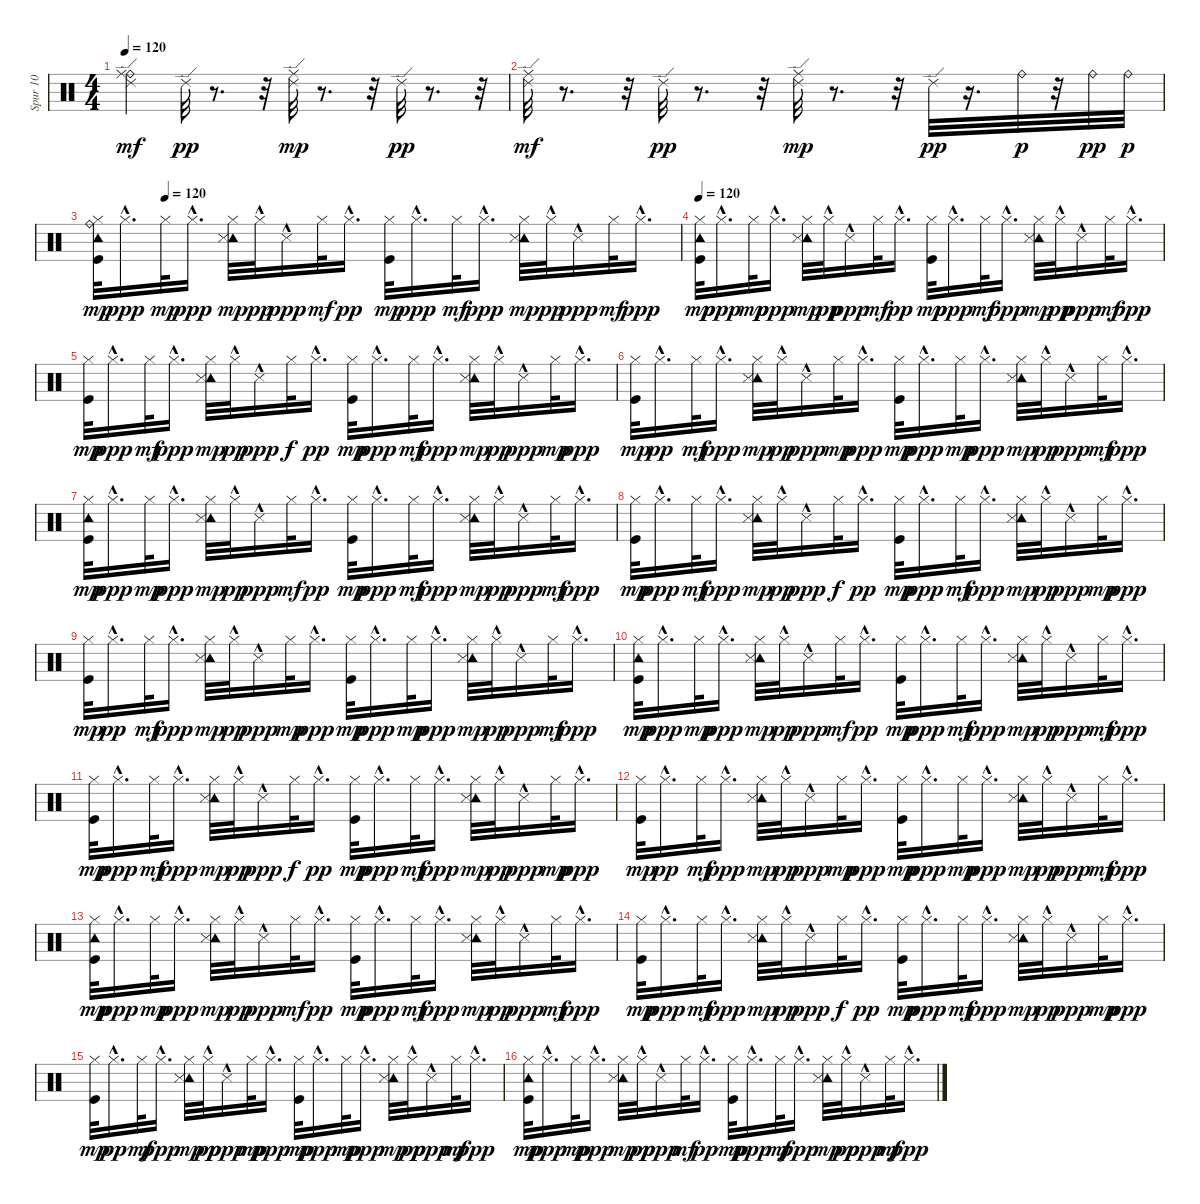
\track ("Spur 10" "Spur 10") {instrument percussion}
\staff {score}
\articulation defaults
\ts (4 4)
\tempo 120
\clef neutral
\ks c
("Ride (bell)" "Ride (middle)" "Ride (edge) 2").4{dy mf} "Ride (edge) 2".32{dy pp} r.8{d} r.32 ("Ride (middle)" "Ride (edge) 2").32{dy mp} r.8{d} r.32 "Ride (edge) 2".32{dy pp} r.8{d} r.32 |
("Ride (middle)" "Ride (edge) 2").32{dy mf} r.8{d} r.32 "Ride (edge) 2".32{dy pp} r.8{d} r.32 ("Ride (middle)" "Ride (edge) 2").32{dy mp} r.8{d} r.32 "Ride (edge) 2".32{dy pp} r.16{d} "Ride (bell)".32{dy p} r.32 "Ride (bell)".32{dy pp} "Ride (bell)".32{dy p} |
\tempo (120 0.125)
("Ride (bell)" "Tambourine (hit)" "Hi-Hat (closed)" "Kick (hit)").32{dy mp} "Hi-Hat (closed)"{hac}.16{d dy ppp} "Hi-Hat (closed)".32{dy mp} "Hi-Hat (closed)"{hac}.16{d dy ppp} ("Tambourine (hit)" "Snare (side stick) 3" "Hi-Hat (closed)").32{dy mp} "Hi-Hat (closed)"{hac}.32{dy pp} "Snare (side stick) 3"{hac}.16{dy ppp} "Hi-Hat (closed)".32{dy mf} "Hi-Hat (closed)"{hac}.16{d dy pp} ("Hi-Hat (closed)" "Kick (hit)").32{dy mp} "Hi-Hat (closed)"{hac}.16{d dy ppp} "Hi-Hat (closed)".32{dy mf} "Hi-Hat (closed)"{hac}.16{d dy ppp} ("Tambourine (hit)" "Snare (side stick) 3" "Hi-Hat (closed)").32{dy mp} "Hi-Hat (closed)"{hac}.32{dy pp} "Snare (side stick) 3"{hac}.16{dy ppp} "Hi-Hat (closed)".32{dy mf} "Hi-Hat (closed)"{hac}.16{d dy ppp} |
\tempo 120
("Tambourine (hit)" "Hi-Hat (closed)" "Kick (hit)").32{dy mp} "Hi-Hat (closed)"{hac}.16{d dy ppp} "Hi-Hat (closed)".32{dy mp} "Hi-Hat (closed)"{hac}.16{d dy ppp} ("Tambourine (hit)" "Snare (side stick) 3" "Hi-Hat (closed)").32{dy mp} "Hi-Hat (closed)"{hac}.32{dy pp} "Snare (side stick) 3"{hac}.16{dy ppp} "Hi-Hat (closed)".32{dy mf} "Hi-Hat (closed)"{hac}.16{d dy pp} ("Hi-Hat (closed)" "Kick (hit)").32{dy mp} "Hi-Hat (closed)"{hac}.16{d dy ppp} "Hi-Hat (closed)".32{dy mf} "Hi-Hat (closed)"{hac}.16{d dy ppp} ("Tambourine (hit)" "Snare (side stick) 3" "Hi-Hat (closed)").32{dy mp} "Hi-Hat (closed)"{hac}.32{dy pp} "Snare (side stick) 3"{hac}.16{dy ppp} "Hi-Hat (closed)".32{dy mf} "Hi-Hat (closed)"{hac}.16{d dy ppp} |
("Hi-Hat (closed)" "Kick (hit)").32{dy mp} "Hi-Hat (closed)"{hac}.16{d dy ppp} "Hi-Hat (closed)".32{dy mf} "Hi-Hat (closed)"{hac}.16{d dy ppp} ("Tambourine (hit)" "Snare (side stick) 3" "Hi-Hat (closed)").32{dy mp} "Hi-Hat (closed)"{hac}.32{dy pp} "Snare (side stick) 3"{hac}.16{dy ppp} "Hi-Hat (closed)".32{dy f} "Hi-Hat (closed)"{hac}.16{d dy pp} ("Hi-Hat (closed)" "Kick (hit)").32{dy mp} "Hi-Hat (closed)"{hac}.16{d dy ppp} "Hi-Hat (closed)".32{dy mf} "Hi-Hat (closed)"{hac}.16{d dy ppp} ("Tambourine (hit)" "Snare (side stick) 3" "Hi-Hat (closed)").32{dy mp} "Hi-Hat (closed)"{hac}.32{dy pp} "Snare (side stick) 3"{hac}.16{dy ppp} "Hi-Hat (closed)".32{dy mp} "Hi-Hat (closed)"{hac}.16{d dy ppp} |
("Hi-Hat (closed)" "Kick (hit)").32{dy mp} "Hi-Hat (closed)"{hac}.16{d dy pp} "Hi-Hat (closed)".32{dy mf} "Hi-Hat (closed)"{hac}.16{d dy ppp} ("Tambourine (hit)" "Snare (side stick) 3" "Hi-Hat (closed)").32{dy mp} "Hi-Hat (closed)"{hac}.32{dy pp} "Snare (side stick) 3"{hac}.16{dy ppp} "Hi-Hat (closed)".32{dy mp} "Hi-Hat (closed)"{hac}.16{d dy ppp} ("Hi-Hat (closed)" "Kick (hit)").32{dy mp} "Hi-Hat (closed)"{hac}.16{d dy ppp} "Hi-Hat (closed)".32{dy mp} "Hi-Hat (closed)"{hac}.16{d dy ppp} ("Tambourine (hit)" "Snare (side stick) 3" "Hi-Hat (closed)").32{dy mp} "Hi-Hat (closed)"{hac}.32{dy pp} "Snare (side stick) 3"{hac}.16{dy ppp} "Hi-Hat (closed)".32{dy mf} "Hi-Hat (closed)"{hac}.16{d dy ppp} |
("Tambourine (hit)" "Hi-Hat (closed)" "Kick (hit)").32{dy mp} "Hi-Hat (closed)"{hac}.16{d dy ppp} "Hi-Hat (closed)".32{dy mp} "Hi-Hat (closed)"{hac}.16{d dy ppp} ("Tambourine (hit)" "Snare (side stick) 3" "Hi-Hat (closed)").32{dy mp} "Hi-Hat (closed)"{hac}.32{dy pp} "Snare (side stick) 3"{hac}.16{dy ppp} "Hi-Hat (closed)".32{dy mf} "Hi-Hat (closed)"{hac}.16{d dy pp} ("Hi-Hat (closed)" "Kick (hit)").32{dy mp} "Hi-Hat (closed)"{hac}.16{d dy ppp} "Hi-Hat (closed)".32{dy mf} "Hi-Hat (closed)"{hac}.16{d dy ppp} ("Tambourine (hit)" "Snare (side stick) 3" "Hi-Hat (closed)").32{dy mp} "Hi-Hat (closed)"{hac}.32{dy pp} "Snare (side stick) 3"{hac}.16{dy ppp} "Hi-Hat (closed)".32{dy mf} "Hi-Hat (closed)"{hac}.16{d dy ppp} |
("Hi-Hat (closed)" "Kick (hit)").32{dy mp} "Hi-Hat (closed)"{hac}.16{d dy ppp} "Hi-Hat (closed)".32{dy mf} "Hi-Hat (closed)"{hac}.16{d dy ppp} ("Tambourine (hit)" "Snare (side stick) 3" "Hi-Hat (closed)").32{dy mp} "Hi-Hat (closed)"{hac}.32{dy pp} "Snare (side stick) 3"{hac}.16{dy ppp} "Hi-Hat (closed)".32{dy f} "Hi-Hat (closed)"{hac}.16{d dy pp} ("Hi-Hat (closed)" "Kick (hit)").32{dy mp} "Hi-Hat (closed)"{hac}.16{d dy ppp} "Hi-Hat (closed)".32{dy mf} "Hi-Hat (closed)"{hac}.16{d dy ppp} ("Tambourine (hit)" "Snare (side stick) 3" "Hi-Hat (closed)").32{dy mp} "Hi-Hat (closed)"{hac}.32{dy pp} "Snare (side stick) 3"{hac}.16{dy ppp} "Hi-Hat (closed)".32{dy mp} "Hi-Hat (closed)"{hac}.16{d dy ppp} |
("Hi-Hat (closed)" "Kick (hit)").32{dy mp} "Hi-Hat (closed)"{hac}.16{d dy pp} "Hi-Hat (closed)".32{dy mf} "Hi-Hat (closed)"{hac}.16{d dy ppp} ("Tambourine (hit)" "Snare (side stick) 3" "Hi-Hat (closed)").32{dy mp} "Hi-Hat (closed)"{hac}.32{dy pp} "Snare (side stick) 3"{hac}.16{dy ppp} "Hi-Hat (closed)".32{dy mp} "Hi-Hat (closed)"{hac}.16{d dy ppp} ("Hi-Hat (closed)" "Kick (hit)").32{dy mp} "Hi-Hat (closed)"{hac}.16{d dy ppp} "Hi-Hat (closed)".32{dy mp} "Hi-Hat (closed)"{hac}.16{d dy ppp} ("Tambourine (hit)" "Snare (side stick) 3" "Hi-Hat (closed)").32{dy mp} "Hi-Hat (closed)"{hac}.32{dy pp} "Snare (side stick) 3"{hac}.16{dy ppp} "Hi-Hat (closed)".32{dy mf} "Hi-Hat (closed)"{hac}.16{d dy ppp} |
("Tambourine (hit)" "Hi-Hat (closed)" "Kick (hit)").32{dy mp} "Hi-Hat (closed)"{hac}.16{d dy ppp} "Hi-Hat (closed)".32{dy mp} "Hi-Hat (closed)"{hac}.16{d dy ppp} ("Tambourine (hit)" "Snare (side stick) 3" "Hi-Hat (closed)").32{dy mp} "Hi-Hat (closed)"{hac}.32{dy pp} "Snare (side stick) 3"{hac}.16{dy ppp} "Hi-Hat (closed)".32{dy mf} "Hi-Hat (closed)"{hac}.16{d dy pp} ("Hi-Hat (closed)" "Kick (hit)").32{dy mp} "Hi-Hat (closed)"{hac}.16{d dy ppp} "Hi-Hat (closed)".32{dy mf} "Hi-Hat (closed)"{hac}.16{d dy ppp} ("Tambourine (hit)" "Snare (side stick) 3" "Hi-Hat (closed)").32{dy mp} "Hi-Hat (closed)"{hac}.32{dy pp} "Snare (side stick) 3"{hac}.16{dy ppp} "Hi-Hat (closed)".32{dy mf} "Hi-Hat (closed)"{hac}.16{d dy ppp} |
("Hi-Hat (closed)" "Kick (hit)").32{dy mp} "Hi-Hat (closed)"{hac}.16{d dy ppp} "Hi-Hat (closed)".32{dy mf} "Hi-Hat (closed)"{hac}.16{d dy ppp} ("Tambourine (hit)" "Snare (side stick) 3" "Hi-Hat (closed)").32{dy mp} "Hi-Hat (closed)"{hac}.32{dy pp} "Snare (side stick) 3"{hac}.16{dy ppp} "Hi-Hat (closed)".32{dy f} "Hi-Hat (closed)"{hac}.16{d dy pp} ("Hi-Hat (closed)" "Kick (hit)").32{dy mp} "Hi-Hat (closed)"{hac}.16{d dy ppp} "Hi-Hat (closed)".32{dy mf} "Hi-Hat (closed)"{hac}.16{d dy ppp} ("Tambourine (hit)" "Snare (side stick) 3" "Hi-Hat (closed)").32{dy mp} "Hi-Hat (closed)"{hac}.32{dy pp} "Snare (side stick) 3"{hac}.16{dy ppp} "Hi-Hat (closed)".32{dy mp} "Hi-Hat (closed)"{hac}.16{d dy ppp} |
("Hi-Hat (closed)" "Kick (hit)").32{dy mp} "Hi-Hat (closed)"{hac}.16{d dy pp} "Hi-Hat (closed)".32{dy mf} "Hi-Hat (closed)"{hac}.16{d dy ppp} ("Tambourine (hit)" "Snare (side stick) 3" "Hi-Hat (closed)").32{dy mp} "Hi-Hat (closed)"{hac}.32{dy pp} "Snare (side stick) 3"{hac}.16{dy ppp} "Hi-Hat (closed)".32{dy mp} "Hi-Hat (closed)"{hac}.16{d dy ppp} ("Hi-Hat (closed)" "Kick (hit)").32{dy mp} "Hi-Hat (closed)"{hac}.16{d dy ppp} "Hi-Hat (closed)".32{dy mp} "Hi-Hat (closed)"{hac}.16{d dy ppp} ("Tambourine (hit)" "Snare (side stick) 3" "Hi-Hat (closed)").32{dy mp} "Hi-Hat (closed)"{hac}.32{dy pp} "Snare (side stick) 3"{hac}.16{dy ppp} "Hi-Hat (closed)".32{dy mf} "Hi-Hat (closed)"{hac}.16{d dy ppp} |
("Tambourine (hit)" "Hi-Hat (closed)" "Kick (hit)").32{dy mp} "Hi-Hat (closed)"{hac}.16{d dy ppp} "Hi-Hat (closed)".32{dy mp} "Hi-Hat (closed)"{hac}.16{d dy ppp} ("Tambourine (hit)" "Snare (side stick) 3" "Hi-Hat (closed)").32{dy mp} "Hi-Hat (closed)"{hac}.32{dy pp} "Snare (side stick) 3"{hac}.16{dy ppp} "Hi-Hat (closed)".32{dy mf} "Hi-Hat (closed)"{hac}.16{d dy pp} ("Hi-Hat (closed)" "Kick (hit)").32{dy mp} "Hi-Hat (closed)"{hac}.16{d dy ppp} "Hi-Hat (closed)".32{dy mf} "Hi-Hat (closed)"{hac}.16{d dy ppp} ("Tambourine (hit)" "Snare (side stick) 3" "Hi-Hat (closed)").32{dy mp} "Hi-Hat (closed)"{hac}.32{dy pp} "Snare (side stick) 3"{hac}.16{dy ppp} "Hi-Hat (closed)".32{dy mf} "Hi-Hat (closed)"{hac}.16{d dy ppp} |
("Hi-Hat (closed)" "Kick (hit)").32{dy mp} "Hi-Hat (closed)"{hac}.16{d dy ppp} "Hi-Hat (closed)".32{dy mf} "Hi-Hat (closed)"{hac}.16{d dy ppp} ("Tambourine (hit)" "Snare (side stick) 3" "Hi-Hat (closed)").32{dy mp} "Hi-Hat (closed)"{hac}.32{dy pp} "Snare (side stick) 3"{hac}.16{dy ppp} "Hi-Hat (closed)".32{dy f} "Hi-Hat (closed)"{hac}.16{d dy pp} ("Hi-Hat (closed)" "Kick (hit)").32{dy mp} "Hi-Hat (closed)"{hac}.16{d dy ppp} "Hi-Hat (closed)".32{dy mf} "Hi-Hat (closed)"{hac}.16{d dy ppp} ("Tambourine (hit)" "Snare (side stick) 3" "Hi-Hat (closed)").32{dy mp} "Hi-Hat (closed)"{hac}.32{dy pp} "Snare (side stick) 3"{hac}.16{dy ppp} "Hi-Hat (closed)".32{dy mp} "Hi-Hat (closed)"{hac}.16{d dy ppp} |
("Hi-Hat (closed)" "Kick (hit)").32{dy mp} "Hi-Hat (closed)"{hac}.16{d dy pp} "Hi-Hat (closed)".32{dy mf} "Hi-Hat (closed)"{hac}.16{d dy ppp} ("Tambourine (hit)" "Snare (side stick) 3" "Hi-Hat (closed)").32{dy mp} "Hi-Hat (closed)"{hac}.32{dy pp} "Snare (side stick) 3"{hac}.16{dy ppp} "Hi-Hat (closed)".32{dy mp} "Hi-Hat (closed)"{hac}.16{d dy ppp} ("Hi-Hat (closed)" "Kick (hit)").32{dy mp} "Hi-Hat (closed)"{hac}.16{d dy ppp} "Hi-Hat (closed)".32{dy mp} "Hi-Hat (closed)"{hac}.16{d dy ppp} ("Tambourine (hit)" "Snare (side stick) 3" "Hi-Hat (closed)").32{dy mp} "Hi-Hat (closed)"{hac}.32{dy pp} "Snare (side stick) 3"{hac}.16{dy ppp} "Hi-Hat (closed)".32{dy mf} "Hi-Hat (closed)"{hac}.16{d dy ppp} |
("Tambourine (hit)" "Hi-Hat (closed)" "Kick (hit)").32{dy mp} "Hi-Hat (closed)"{hac}.16{d dy ppp} "Hi-Hat (closed)".32{dy mp} "Hi-Hat (closed)"{hac}.16{d dy ppp} ("Tambourine (hit)" "Snare (side stick) 3" "Hi-Hat (closed)").32{dy mp} "Hi-Hat (closed)"{hac}.32{dy pp} "Snare (side stick) 3"{hac}.16{dy ppp} "Hi-Hat (closed)".32{dy mf} "Hi-Hat (closed)"{hac}.16{d dy pp} ("Hi-Hat (closed)" "Kick (hit)").32{dy mp} "Hi-Hat (closed)"{hac}.16{d dy ppp} "Hi-Hat (closed)".32{dy mf} "Hi-Hat (closed)"{hac}.16{d dy ppp} ("Tambourine (hit)" "Snare (side stick) 3" "Hi-Hat (closed)").32{dy mp} "Hi-Hat (closed)"{hac}.32{dy pp} "Snare (side stick) 3"{hac}.16{dy ppp} "Hi-Hat (closed)".32{dy mf} "Hi-Hat (closed)"{hac}.16{d dy ppp}
